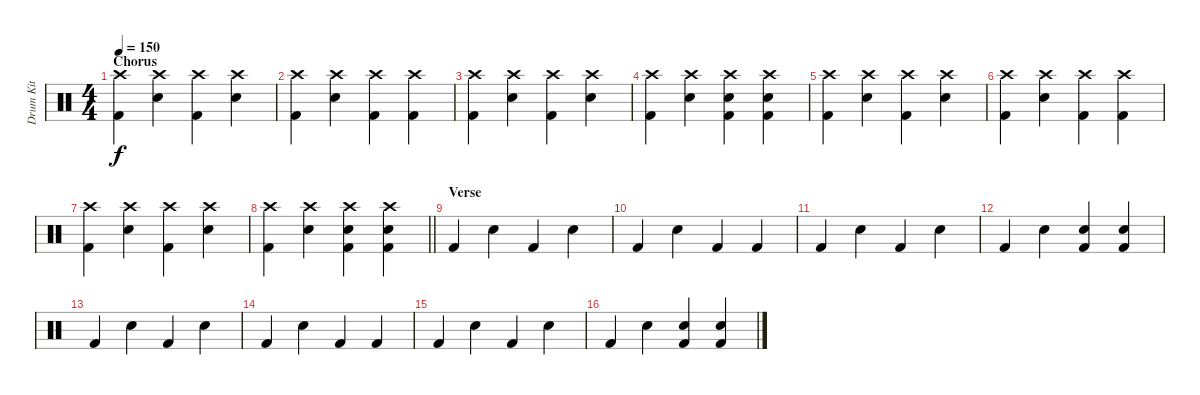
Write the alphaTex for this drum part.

\track ("Drum Kit" "Drum Kit") {instrument percussion}
\staff {score}
\articulation defaults
\ts (4 4)
\section ("" "Chorus")
\tempo 150
\clef neutral
\ks c
("Crash high (hit)" "Kick (hit) 2").4{dy f} ("Crash high (hit)" "Snare (hit) 2").4 ("Crash high (hit)" "Kick (hit) 2").4 ("Crash high (hit)" "Snare (hit) 2").4 |
("Crash high (hit)" "Kick (hit) 2").4 ("Crash high (hit)" "Snare (hit) 2").4 ("Crash high (hit)" "Kick (hit) 2").4 ("Crash high (hit)" "Kick (hit) 2").4 |
("Crash high (hit)" "Kick (hit) 2").4 ("Crash high (hit)" "Snare (hit) 2").4 ("Crash high (hit)" "Kick (hit) 2").4 ("Crash high (hit)" "Snare (hit) 2").4 |
("Crash high (hit)" "Kick (hit) 2").4 ("Crash high (hit)" "Snare (hit) 2").4 ("Crash high (hit)" "Snare (hit) 2" "Kick (hit) 2").4 ("Crash high (hit)" "Snare (hit) 2" "Kick (hit) 2").4 |
("Crash high (hit)" "Kick (hit) 2").4 ("Crash high (hit)" "Snare (hit) 2").4 ("Crash high (hit)" "Kick (hit) 2").4 ("Crash high (hit)" "Snare (hit) 2").4 |
("Crash high (hit)" "Kick (hit) 2").4 ("Crash high (hit)" "Snare (hit) 2").4 ("Crash high (hit)" "Kick (hit) 2").4 ("Crash high (hit)" "Kick (hit) 2").4 |
("Crash high (hit)" "Kick (hit) 2").4 ("Crash high (hit)" "Snare (hit) 2").4 ("Crash high (hit)" "Kick (hit) 2").4 ("Crash high (hit)" "Snare (hit) 2").4 |
\barLineRight lightlight
("Crash high (hit)" "Kick (hit) 2").4 ("Crash high (hit)" "Snare (hit) 2").4 ("Crash high (hit)" "Snare (hit) 2" "Kick (hit) 2").4 ("Crash high (hit)" "Snare (hit) 2" "Kick (hit) 2").4 |
\section ("" "Verse")
"Kick (hit) 2".4 "Snare (hit) 2".4 "Kick (hit) 2".4 "Snare (hit) 2".4 |
"Kick (hit) 2".4 "Snare (hit) 2".4 "Kick (hit) 2".4 "Kick (hit) 2".4 |
"Kick (hit) 2".4 "Snare (hit) 2".4 "Kick (hit) 2".4 "Snare (hit) 2".4 |
"Kick (hit) 2".4 "Snare (hit) 2".4 ("Snare (hit) 2" "Kick (hit) 2").4 ("Snare (hit) 2" "Kick (hit) 2").4 |
"Kick (hit) 2".4 "Snare (hit) 2".4 "Kick (hit) 2".4 "Snare (hit) 2".4 |
"Kick (hit) 2".4 "Snare (hit) 2".4 "Kick (hit) 2".4 "Kick (hit) 2".4 |
"Kick (hit) 2".4 "Snare (hit) 2".4 "Kick (hit) 2".4 "Snare (hit) 2".4 |
"Kick (hit) 2".4 "Snare (hit) 2".4 ("Snare (hit) 2" "Kick (hit) 2").4 ("Snare (hit) 2" "Kick (hit) 2").4
